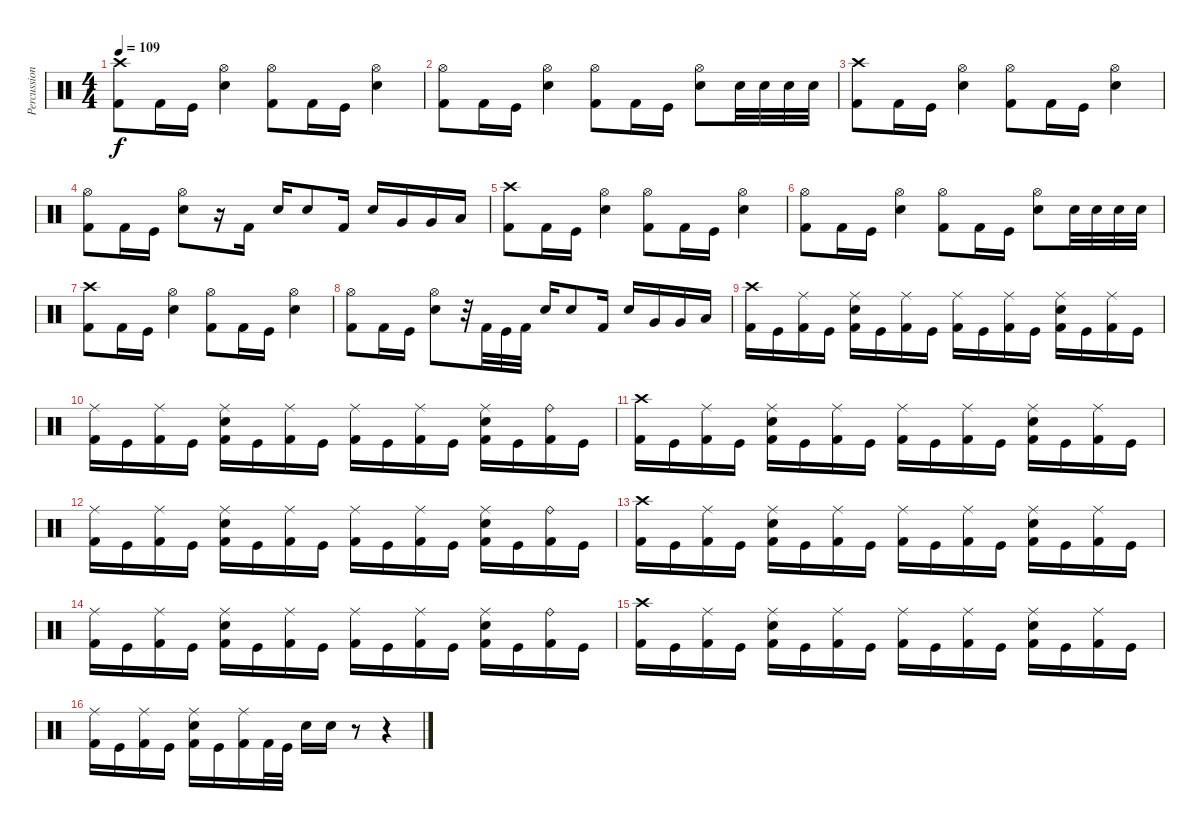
\track ("Percussion" "Percussion") {instrument percussion}
\staff {score}
\articulation defaults
\ts (4 4)
\tempo 109
\clef neutral
\ks c
("Crash high (hit)" "Kick (hit) 2").8{dy f} "Kick (hit) 2".16 "Kick (hit)".16 ("Hi-Hat (open)" "Electric Snare (hit)").4 ("Hi-Hat (open)" "Kick (hit) 2").8 "Kick (hit) 2".16 "Kick (hit)".16 ("Hi-Hat (open)" "Electric Snare (hit)").4 |
("Hi-Hat (open)" "Kick (hit) 2").8 "Kick (hit) 2".16 "Kick (hit)".16 ("Hi-Hat (open)" "Electric Snare (hit)").4 ("Hi-Hat (open)" "Kick (hit) 2").8 "Kick (hit) 2".16 "Kick (hit)".16 ("Hi-Hat (open)" "Electric Snare (hit)").8 "Electric Snare (hit)".32 "Electric Snare (hit)".32 "Electric Snare (hit)".32 "Electric Snare (hit)".32 |
("Crash high (hit)" "Kick (hit) 2").8 "Kick (hit) 2".16 "Kick (hit)".16 ("Hi-Hat (open)" "Electric Snare (hit)").4 ("Hi-Hat (open)" "Kick (hit) 2").8 "Kick (hit) 2".16 "Kick (hit)".16 ("Hi-Hat (open)" "Electric Snare (hit)").4 |
("Hi-Hat (open)" "Kick (hit) 2").8 "Kick (hit) 2".16 "Kick (hit)".16 ("Hi-Hat (open)" "Electric Snare (hit)").8 r.16 "Kick (hit) 2".16 "Electric Snare (hit)".16 "Electric Snare (hit)".8 "Kick (hit) 2".16 "Electric Snare (hit)".16 "Very Low Tom (hit)".16 "Very Low Tom (hit)".16 "Low Floor Tom (hit)".16 |
("Crash high (hit)" "Kick (hit) 2").8 "Kick (hit) 2".16 "Kick (hit)".16 ("Hi-Hat (open)" "Electric Snare (hit)").4 ("Hi-Hat (open)" "Kick (hit) 2").8 "Kick (hit) 2".16 "Kick (hit)".16 ("Hi-Hat (open)" "Electric Snare (hit)").4 |
("Hi-Hat (open)" "Kick (hit) 2").8 "Kick (hit) 2".16 "Kick (hit)".16 ("Hi-Hat (open)" "Electric Snare (hit)").4 ("Hi-Hat (open)" "Kick (hit) 2").8 "Kick (hit) 2".16 "Kick (hit)".16 ("Hi-Hat (open)" "Electric Snare (hit)").8 "Electric Snare (hit)".32 "Electric Snare (hit)".32 "Electric Snare (hit)".32 "Electric Snare (hit)".32 |
("Crash high (hit)" "Kick (hit) 2").8 "Kick (hit) 2".16 "Kick (hit)".16 ("Hi-Hat (open)" "Electric Snare (hit)").4 ("Hi-Hat (open)" "Kick (hit) 2").8 "Kick (hit) 2".16 "Kick (hit)".16 ("Hi-Hat (open)" "Electric Snare (hit)").4 |
("Hi-Hat (open)" "Kick (hit) 2").8 "Kick (hit) 2".16 "Kick (hit)".16 ("Hi-Hat (open)" "Electric Snare (hit)").8 r.32 "Kick (hit) 2".32 "Kick (hit)".32 "Kick (hit) 2".32 "Electric Snare (hit)".16 "Electric Snare (hit)".8 "Kick (hit) 2".16 "Electric Snare (hit)".16 "Very Low Tom (hit)".16 "Very Low Tom (hit)".16 "Low Floor Tom (hit)".16 |
("Crash high (hit)" "Kick (hit) 2").16 "Kick (hit)".16 ("Ride (middle)" "Kick (hit) 2").16 "Kick (hit)".16 ("Ride (middle)" "Electric Snare (hit)" "Kick (hit) 2").16 "Kick (hit)".16 ("Ride (middle)" "Kick (hit) 2").16 "Kick (hit)".16 ("Ride (middle)" "Kick (hit) 2").16 "Kick (hit)".16 ("Ride (middle)" "Kick (hit) 2").16 "Kick (hit)".16 ("Ride (middle)" "Electric Snare (hit)" "Kick (hit) 2").16 "Kick (hit)".16 ("Ride (middle)" "Kick (hit) 2").16 "Kick (hit)".16 |
("Ride (middle)" "Kick (hit) 2").16 "Kick (hit)".16 ("Ride (middle)" "Kick (hit) 2").16 "Kick (hit)".16 ("Ride (middle)" "Electric Snare (hit)" "Kick (hit) 2").16 "Kick (hit)".16 ("Ride (middle)" "Kick (hit) 2").16 "Kick (hit)".16 ("Ride (middle)" "Kick (hit) 2").16 "Kick (hit)".16 ("Ride (middle)" "Kick (hit) 2").16 "Kick (hit)".16 ("Ride (middle)" "Electric Snare (hit)" "Kick (hit) 2").16 "Kick (hit)".16 ("Ride (bell)" "Kick (hit) 2").16 "Kick (hit)".16 |
("Crash high (hit)" "Kick (hit) 2").16 "Kick (hit)".16 ("Ride (middle)" "Kick (hit) 2").16 "Kick (hit)".16 ("Ride (middle)" "Electric Snare (hit)" "Kick (hit) 2").16 "Kick (hit)".16 ("Ride (middle)" "Kick (hit) 2").16 "Kick (hit)".16 ("Ride (middle)" "Kick (hit) 2").16 "Kick (hit)".16 ("Ride (middle)" "Kick (hit) 2").16 "Kick (hit)".16 ("Ride (middle)" "Electric Snare (hit)" "Kick (hit) 2").16 "Kick (hit)".16 ("Ride (middle)" "Kick (hit) 2").16 "Kick (hit)".16 |
("Ride (middle)" "Kick (hit) 2").16 "Kick (hit)".16 ("Ride (middle)" "Kick (hit) 2").16 "Kick (hit)".16 ("Ride (middle)" "Electric Snare (hit)" "Kick (hit) 2").16 "Kick (hit)".16 ("Ride (middle)" "Kick (hit) 2").16 "Kick (hit)".16 ("Ride (middle)" "Kick (hit) 2").16 "Kick (hit)".16 ("Ride (middle)" "Kick (hit) 2").16 "Kick (hit)".16 ("Ride (middle)" "Electric Snare (hit)" "Kick (hit) 2").16 "Kick (hit)".16 ("Ride (bell)" "Kick (hit) 2").16 "Kick (hit)".16 |
("Crash high (hit)" "Kick (hit) 2").16 "Kick (hit)".16 ("Ride (middle)" "Kick (hit) 2").16 "Kick (hit)".16 ("Ride (middle)" "Electric Snare (hit)" "Kick (hit) 2").16 "Kick (hit)".16 ("Ride (middle)" "Kick (hit) 2").16 "Kick (hit)".16 ("Ride (middle)" "Kick (hit) 2").16 "Kick (hit)".16 ("Ride (middle)" "Kick (hit) 2").16 "Kick (hit)".16 ("Ride (middle)" "Electric Snare (hit)" "Kick (hit) 2").16 "Kick (hit)".16 ("Ride (middle)" "Kick (hit) 2").16 "Kick (hit)".16 |
("Ride (middle)" "Kick (hit) 2").16 "Kick (hit)".16 ("Ride (middle)" "Kick (hit) 2").16 "Kick (hit)".16 ("Ride (middle)" "Electric Snare (hit)" "Kick (hit) 2").16 "Kick (hit)".16 ("Ride (middle)" "Kick (hit) 2").16 "Kick (hit)".16 ("Ride (middle)" "Kick (hit) 2").16 "Kick (hit)".16 ("Ride (middle)" "Kick (hit) 2").16 "Kick (hit)".16 ("Ride (middle)" "Electric Snare (hit)" "Kick (hit) 2").16 "Kick (hit)".16 ("Ride (bell)" "Kick (hit) 2").16 "Kick (hit)".16 |
("Crash high (hit)" "Kick (hit) 2").16 "Kick (hit)".16 ("Ride (middle)" "Kick (hit) 2").16 "Kick (hit)".16 ("Ride (middle)" "Electric Snare (hit)" "Kick (hit) 2").16 "Kick (hit)".16 ("Ride (middle)" "Kick (hit) 2").16 "Kick (hit)".16 ("Ride (middle)" "Kick (hit) 2").16 "Kick (hit)".16 ("Ride (middle)" "Kick (hit) 2").16 "Kick (hit)".16 ("Ride (middle)" "Electric Snare (hit)" "Kick (hit) 2").16 "Kick (hit)".16 ("Ride (middle)" "Kick (hit) 2").16 "Kick (hit)".16 |
("Ride (middle)" "Kick (hit) 2").16 "Kick (hit)".16 ("Ride (middle)" "Kick (hit) 2").16 "Kick (hit)".16 ("Ride (middle)" "Electric Snare (hit)" "Kick (hit) 2").16 "Kick (hit)".16 ("Ride (middle)" "Kick (hit) 2").16 "Kick (hit) 2".32 "Kick (hit)".32 "Electric Snare (hit)".16 "Electric Snare (hit)".16 r.8 r.4
